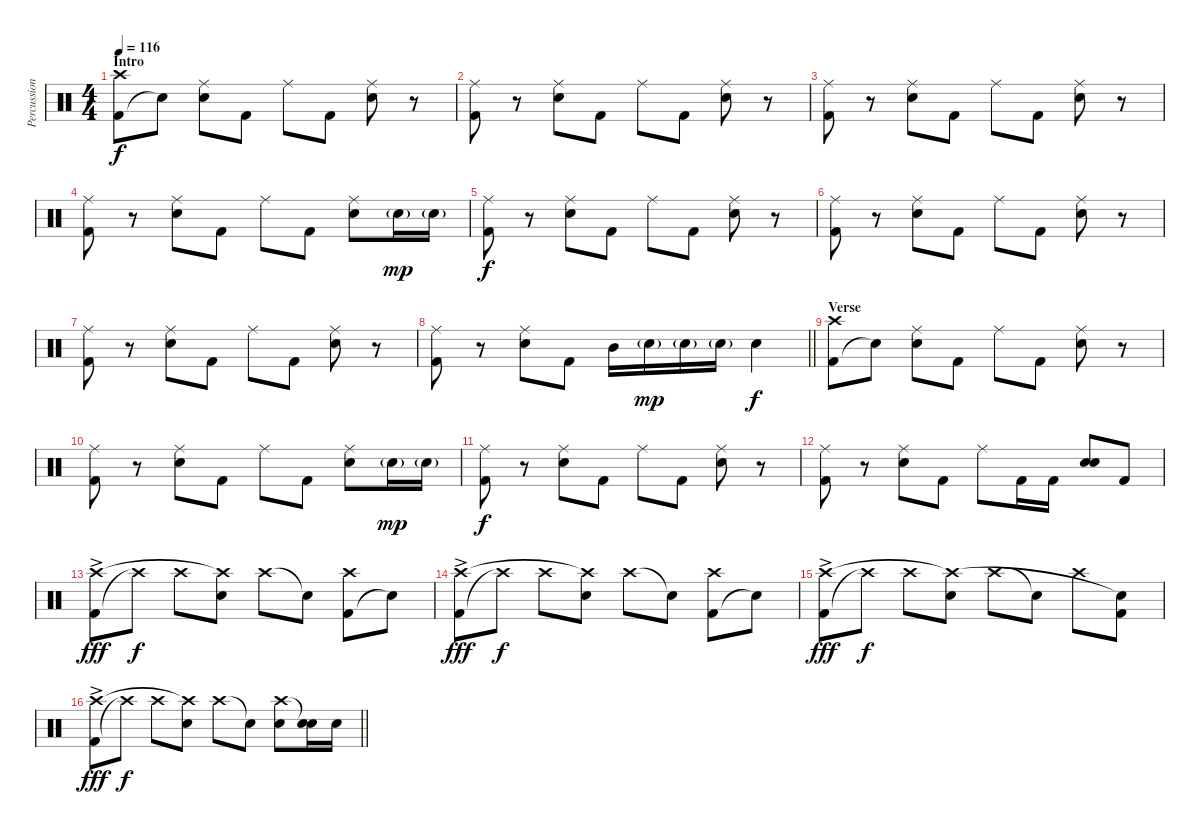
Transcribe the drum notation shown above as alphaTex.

\track ("Percussion" "Percussion") {instrument percussion}
\staff {score}
\articulation defaults
\ts (4 4)
\section ("" "Intro")
\tempo 116
\clef neutral
\ks c
("Kick (hit) 2" "Crash high (hit)").8{dy f} "Snare (hit)"{t}.8 ("Electric Snare (hit)" "Ride (middle)").8 "Kick (hit) 2".8 "Ride (middle)".8 "Kick (hit) 2".8 ("Electric Snare (hit)" "Ride (middle)").8 r.8 |
("Kick (hit) 2" "Ride (middle)").8 r.8 ("Electric Snare (hit)" "Ride (middle)").8 "Kick (hit) 2".8 "Ride (middle)".8 "Kick (hit) 2".8 ("Electric Snare (hit)" "Ride (middle)").8 r.8 |
("Kick (hit) 2" "Ride (middle)").8 r.8 ("Electric Snare (hit)" "Ride (middle)").8 "Kick (hit) 2".8 "Ride (middle)".8 "Kick (hit) 2".8 ("Electric Snare (hit)" "Ride (middle)").8 r.8 |
("Kick (hit) 2" "Ride (middle)").8 r.8 ("Electric Snare (hit)" "Ride (middle)").8 "Kick (hit) 2".8 "Ride (middle)".8 "Kick (hit) 2".8 ("Electric Snare (hit)" "Ride (middle)").8 "Electric Snare (hit)"{g}.16{dy mp} "Electric Snare (hit)"{g}.16 |
("Kick (hit) 2" "Ride (middle)").8{dy f} r.8 ("Electric Snare (hit)" "Ride (middle)").8 "Kick (hit) 2".8 "Ride (middle)".8 "Kick (hit) 2".8 ("Electric Snare (hit)" "Ride (middle)").8 r.8 |
("Kick (hit) 2" "Ride (middle)").8 r.8 ("Electric Snare (hit)" "Ride (middle)").8 "Kick (hit) 2".8 "Ride (middle)".8 "Kick (hit) 2".8 ("Electric Snare (hit)" "Ride (middle)").8 r.8 |
("Kick (hit) 2" "Ride (middle)").8 r.8 ("Electric Snare (hit)" "Ride (middle)").8 "Kick (hit) 2".8 "Ride (middle)".8 "Kick (hit) 2".8 ("Electric Snare (hit)" "Ride (middle)").8 r.8 |
\barLineRight lightlight
("Kick (hit) 2" "Ride (middle)").8 r.8 ("Electric Snare (hit)" "Ride (middle)").8 "Kick (hit) 2".8 "Mid Tom (hit)".16 "Electric Snare (hit)"{g}.16{dy mp} "Electric Snare (hit)"{g}.16 "Electric Snare (hit)"{g}.16 "Electric Snare (hit)".4{dy f} |
\section ("" "Verse")
("Kick (hit) 2" "Crash high (hit)").8 "Snare (hit)"{t}.8 ("Electric Snare (hit)" "Ride (middle)").8 "Kick (hit) 2".8 "Ride (middle)".8 "Kick (hit) 2".8 ("Electric Snare (hit)" "Ride (middle)").8 r.8 |
("Kick (hit) 2" "Ride (middle)").8 r.8 ("Electric Snare (hit)" "Ride (middle)").8 "Kick (hit) 2".8 "Ride (middle)".8 "Kick (hit) 2".8 ("Electric Snare (hit)" "Ride (middle)").8 "Electric Snare (hit)"{g}.16{dy mp} "Electric Snare (hit)"{g}.16 |
("Kick (hit) 2" "Ride (middle)").8{dy f} r.8 ("Electric Snare (hit)" "Ride (middle)").8 "Kick (hit) 2".8 "Ride (middle)".8 "Kick (hit) 2".8 ("Electric Snare (hit)" "Ride (middle)").8 r.8 |
("Kick (hit) 2" "Ride (middle)").8 r.8 ("Electric Snare (hit)" "Ride (middle)").8 "Kick (hit) 2".8 "Ride (middle)".8 "Kick (hit) 2".16 "Kick (hit) 2".16 ("Electric Snare (hit)" "Electric Snare (hit)").8 "Kick (hit) 2".8 |
("Kick (hit) 2" "Crash high (hit)"{ac}).8{dy fff} "Crash high (hit)"{t}.8{dy f} "Crash high (hit)".8 ("Electric Snare (hit)" "Crash high (hit)"{t}).8 "Crash high (hit)".8 "Snare (hit)"{t}.8 ("Kick (hit) 2" "Crash high (hit)").8 "Snare (hit)"{t}.8 |
("Kick (hit) 2" "Crash high (hit)"{ac}).8{dy fff} "Crash high (hit)"{t}.8{dy f} "Crash high (hit)".8 ("Electric Snare (hit)" "Crash high (hit)"{t}).8 "Crash high (hit)".8 "Snare (hit)"{t}.8 ("Kick (hit) 2" "Crash high (hit)").8 "Snare (hit)"{t}.8 |
("Kick (hit) 2" "Crash high (hit)"{ac}).8{dy fff} "Crash high (hit)"{t}.8{dy f} "Crash high (hit)".8 ("Electric Snare (hit)" "Crash high (hit)"{t}).8 "Crash high (hit)".8 "Snare (hit)"{t}.8 "Crash high (hit)".8 ("Kick (hit) 2" "Snare (hit)"{t}).8 |
\barLineRight lightlight
("Kick (hit) 2" "Crash high (hit)"{ac}).8{dy fff} "Crash high (hit)"{t}.8{dy f} "Crash high (hit)".8 ("Electric Snare (hit)" "Crash high (hit)"{t}).8 "Crash high (hit)".8 "Snare (hit)"{t}.8 ("Electric Snare (hit)" "Crash high (hit)").8 ("Electric Snare (hit)" "Snare (hit)"{t}).16 "Electric Snare (hit)".16
